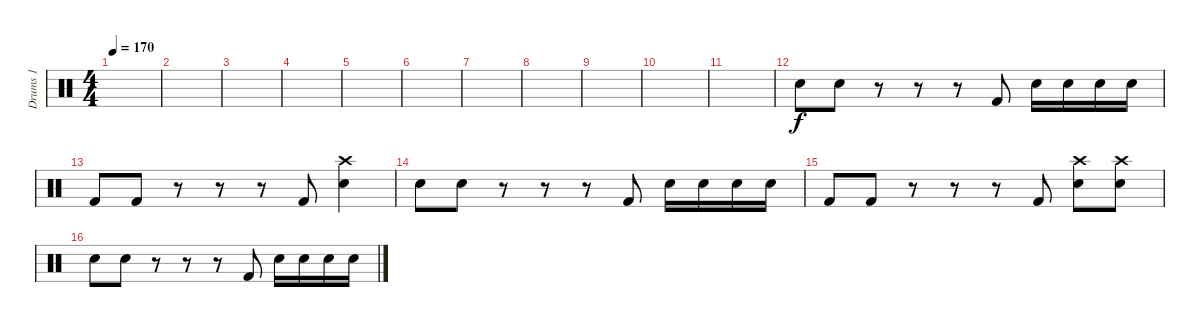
\track ("Drums 1" "Drums 1") {instrument percussion}
\staff {score}
\articulation defaults
\ts (4 4)
\tempo 170
\clef neutral
\ks c
|
|
|
|
|
|
|
|
|
|
|
"Electric Snare (hit)".8 "Electric Snare (hit)".8 r.8 r.8 r.8 "Kick (hit) 2".8 "Electric Snare (hit)".16 "Electric Snare (hit)".16 "Electric Snare (hit)".16 "Electric Snare (hit)".16 |
"Kick (hit) 2".8 "Kick (hit) 2".8 r.8 r.8 r.8 "Kick (hit) 2".8 ("Crash high (hit)" "Electric Snare (hit)").4 |
"Electric Snare (hit)".8 "Electric Snare (hit)".8 r.8 r.8 r.8 "Kick (hit) 2".8 "Electric Snare (hit)".16 "Electric Snare (hit)".16 "Electric Snare (hit)".16 "Electric Snare (hit)".16 |
"Kick (hit) 2".8 "Kick (hit) 2".8 r.8 r.8 r.8 "Kick (hit) 2".8 ("Crash high (hit)" "Electric Snare (hit)").8 ("Crash high (hit)" "Electric Snare (hit)").8 |
"Electric Snare (hit)".8 "Electric Snare (hit)".8 r.8 r.8 r.8 "Kick (hit) 2".8 "Electric Snare (hit)".16 "Electric Snare (hit)".16 "Electric Snare (hit)".16 "Electric Snare (hit)".16
